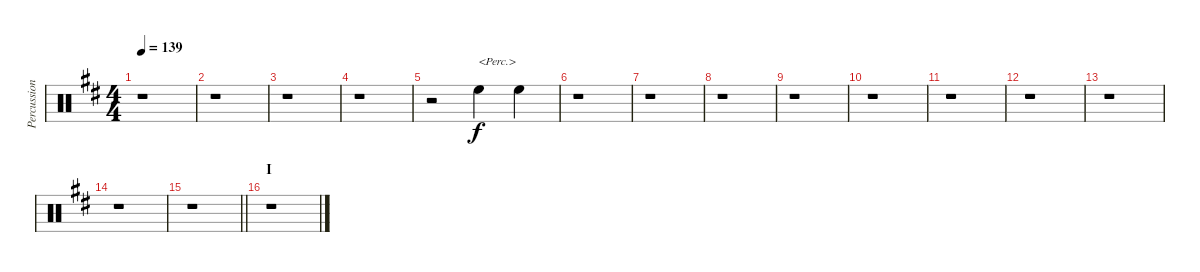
\track ("Percussion" "Percussion") {instrument percussion}
\staff {score}
\articulation defaults
\ts (4 4)
\tempo 139
\clef neutral
\ks d
r.1{dy f} |
r.1 |
r.1 |
r.1 |
r.2 "High Floor Tom (hit)".4{txt "<Perc.>"} "High Floor Tom (hit)".4 |
r.1 |
r.1 |
r.1 |
r.1 |
r.1 |
r.1 |
r.1 |
r.1 |
r.1 |
\barLineRight lightlight
r.1 |
\section ("" "I")
r.1
